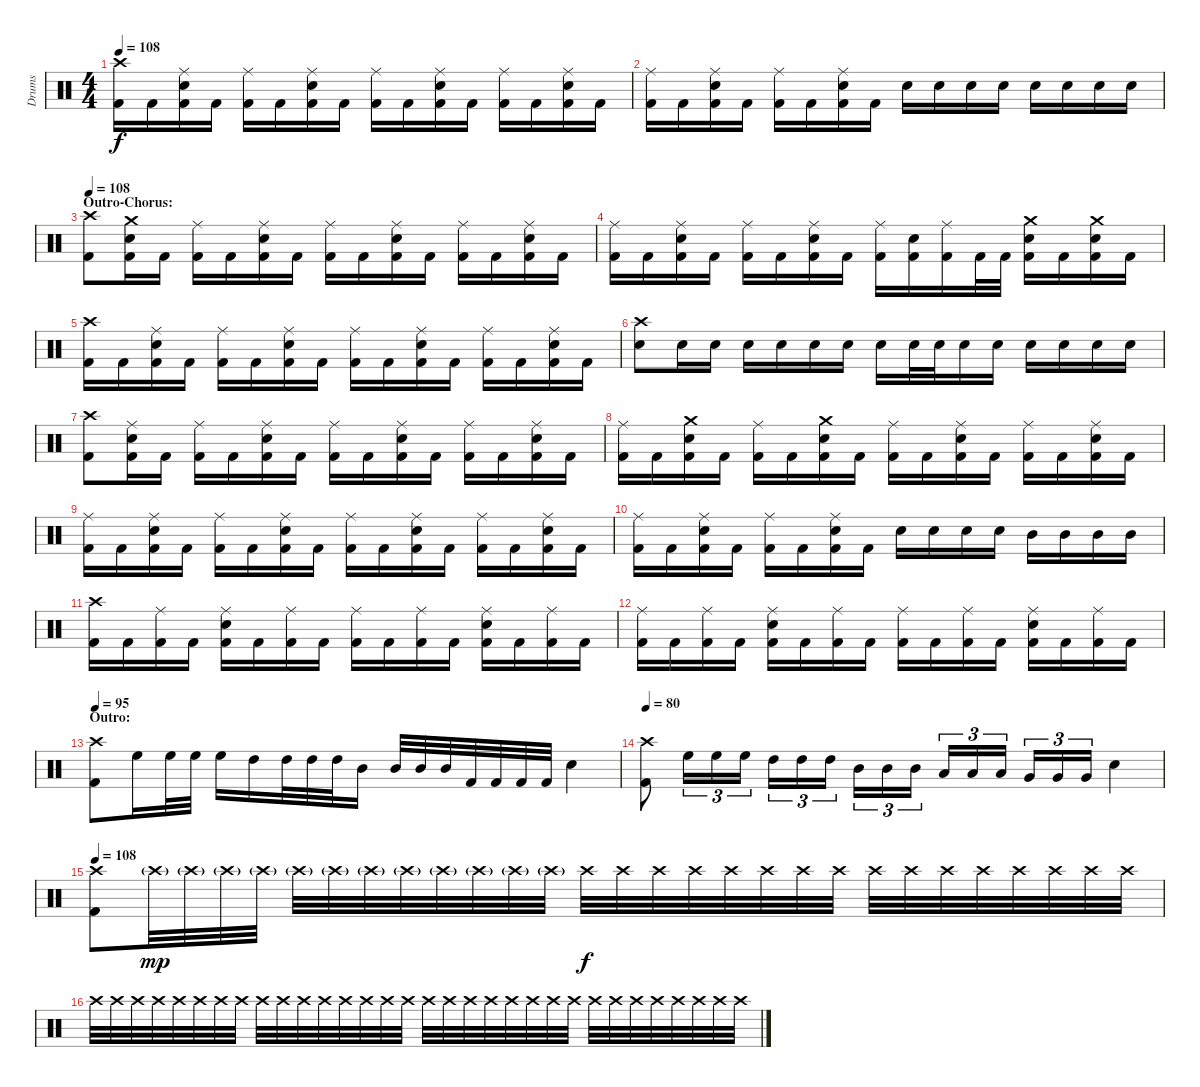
\track ("Drums" "Drums") {instrument percussion}
\staff {score}
\articulation defaults
\ts (4 4)
\tempo 108
\clef neutral
\ks c
("Crash high (hit)" "Kick (hit) 2").16{dy f} "Kick (hit) 2".16 ("Ride (middle)" "Electric Snare (hit)" "Kick (hit) 2").16 "Kick (hit) 2".16 ("Ride (middle)" "Kick (hit) 2").16 "Kick (hit) 2".16 ("Ride (middle)" "Electric Snare (hit)" "Kick (hit) 2").16 "Kick (hit) 2".16 ("Ride (middle)" "Kick (hit) 2").16 "Kick (hit) 2".16 ("Ride (middle)" "Electric Snare (hit)" "Kick (hit) 2").16 "Kick (hit) 2".16 ("Ride (middle)" "Kick (hit) 2").16 "Kick (hit) 2".16 ("Ride (middle)" "Electric Snare (hit)" "Kick (hit) 2").16 "Kick (hit) 2".16 |
("Ride (middle)" "Kick (hit) 2").16 "Kick (hit) 2".16 ("Ride (middle)" "Electric Snare (hit)" "Kick (hit) 2").16 "Kick (hit) 2".16 ("Ride (middle)" "Kick (hit) 2").16 "Kick (hit) 2".16 ("Ride (middle)" "Electric Snare (hit)" "Kick (hit) 2").16 "Kick (hit) 2".16 "Electric Snare (hit)".16 "Electric Snare (hit)".16 "Electric Snare (hit)".16 "Electric Snare (hit)".16 "Electric Snare (hit)".16 "Electric Snare (hit)".16 "Electric Snare (hit)".16 "Electric Snare (hit)".16 |
\section ("" "Outro-Chorus:")
\tempo 108
("Crash high (hit)" "Kick (hit) 2").8 ("Crash medium (hit)" "Electric Snare (hit)" "Kick (hit) 2").16 "Kick (hit) 2".16 ("Ride (middle)" "Kick (hit) 2").16 "Kick (hit) 2".16 ("Ride (middle)" "Electric Snare (hit)" "Kick (hit) 2").16 "Kick (hit) 2".16 ("Ride (middle)" "Kick (hit) 2").16 "Kick (hit) 2".16 ("Ride (middle)" "Electric Snare (hit)" "Kick (hit) 2").16 "Kick (hit) 2".16 ("Ride (middle)" "Kick (hit) 2").16 "Kick (hit) 2".16 ("Ride (middle)" "Electric Snare (hit)" "Kick (hit) 2").16 "Kick (hit) 2".16 |
("Ride (middle)" "Kick (hit) 2").16 "Kick (hit) 2".16 ("Ride (middle)" "Electric Snare (hit)" "Kick (hit) 2").16 "Kick (hit) 2".16 ("Ride (middle)" "Kick (hit) 2").16 "Kick (hit) 2".16 ("Ride (middle)" "Electric Snare (hit)" "Kick (hit) 2").16 "Kick (hit) 2".16 ("Ride (middle)" "Kick (hit) 2").16 ("Electric Snare (hit)" "Kick (hit) 2").16 ("Ride (middle)" "Kick (hit) 2").16 "Kick (hit) 2".32 "Kick (hit) 2".32 ("Crash medium (hit)" "Electric Snare (hit)" "Kick (hit) 2").16 "Kick (hit) 2".16 ("Crash medium (hit)" "Electric Snare (hit)" "Kick (hit) 2").16 "Kick (hit) 2".16 |
("Crash high (hit)" "Kick (hit) 2").16 "Kick (hit) 2".16 ("Ride (middle)" "Electric Snare (hit)" "Kick (hit) 2").16 "Kick (hit) 2".16 ("Ride (middle)" "Kick (hit) 2").16 "Kick (hit) 2".16 ("Ride (middle)" "Electric Snare (hit)" "Kick (hit) 2").16 "Kick (hit) 2".16 ("Ride (middle)" "Kick (hit) 2").16 "Kick (hit) 2".16 ("Ride (middle)" "Electric Snare (hit)" "Kick (hit) 2").16 "Kick (hit) 2".16 ("Ride (middle)" "Kick (hit) 2").16 "Kick (hit) 2".16 ("Ride (middle)" "Electric Snare (hit)" "Kick (hit) 2").16 "Kick (hit) 2".16 |
("Crash high (hit)" "Electric Snare (hit)").8 "Electric Snare (hit)".16 "Electric Snare (hit)".16 "Electric Snare (hit)".16 "Electric Snare (hit)".16 "Electric Snare (hit)".16 "Electric Snare (hit)".16 "Electric Snare (hit)".16 "Electric Snare (hit)".32 "Electric Snare (hit)".32 "Electric Snare (hit)".16 "Electric Snare (hit)".16 "Electric Snare (hit)".16 "Electric Snare (hit)".16 "Electric Snare (hit)".16 "Electric Snare (hit)".16 |
("Crash high (hit)" "Kick (hit) 2").8 ("Ride (middle)" "Electric Snare (hit)" "Kick (hit) 2").16 "Kick (hit) 2".16 ("Ride (middle)" "Kick (hit) 2").16 "Kick (hit) 2".16 ("Ride (middle)" "Electric Snare (hit)" "Kick (hit) 2").16 "Kick (hit) 2".16 ("Ride (middle)" "Kick (hit) 2").16 "Kick (hit) 2".16 ("Ride (middle)" "Electric Snare (hit)" "Kick (hit) 2").16 "Kick (hit) 2".16 ("Ride (middle)" "Kick (hit) 2").16 "Kick (hit) 2".16 ("Ride (middle)" "Electric Snare (hit)" "Kick (hit) 2").16 "Kick (hit) 2".16 |
("Ride (middle)" "Kick (hit) 2").16 "Kick (hit) 2".16 ("Crash medium (hit)" "Electric Snare (hit)" "Kick (hit) 2").16 "Kick (hit) 2".16 ("Ride (middle)" "Kick (hit) 2").16 "Kick (hit) 2".16 ("Crash medium (hit)" "Electric Snare (hit)" "Kick (hit) 2").16 "Kick (hit) 2".16 ("Ride (middle)" "Kick (hit) 2").16 "Kick (hit) 2".16 ("Ride (middle)" "Electric Snare (hit)" "Kick (hit) 2").16 "Kick (hit) 2".16 ("Ride (middle)" "Kick (hit) 2").16 "Kick (hit) 2".16 ("Ride (middle)" "Electric Snare (hit)" "Kick (hit) 2").16 "Kick (hit) 2".16 |
("Ride (middle)" "Kick (hit) 2").16 "Kick (hit) 2".16 ("Ride (middle)" "Electric Snare (hit)" "Kick (hit) 2").16 "Kick (hit) 2".16 ("Ride (middle)" "Kick (hit) 2").16 "Kick (hit) 2".16 ("Ride (middle)" "Electric Snare (hit)" "Kick (hit) 2").16 "Kick (hit) 2".16 ("Ride (middle)" "Kick (hit) 2").16 "Kick (hit) 2".16 ("Ride (middle)" "Electric Snare (hit)" "Kick (hit) 2").16 "Kick (hit) 2".16 ("Ride (middle)" "Kick (hit) 2").16 "Kick (hit) 2".16 ("Ride (middle)" "Electric Snare (hit)" "Kick (hit) 2").16 "Kick (hit) 2".16 |
("Ride (middle)" "Kick (hit) 2").16 "Kick (hit) 2".16 ("Ride (middle)" "Electric Snare (hit)" "Kick (hit) 2").16 "Kick (hit) 2".16 ("Ride (middle)" "Kick (hit) 2").16 "Kick (hit) 2".16 ("Ride (middle)" "Electric Snare (hit)" "Kick (hit) 2").16 "Kick (hit) 2".16 "Electric Snare (hit)".16 "Electric Snare (hit)".16 "Electric Snare (hit)".16 "Electric Snare (hit)".16 "Mid Tom (hit)".16 "Mid Tom (hit)".16 "Mid Tom (hit)".16 "Mid Tom (hit)".16 |
("Crash high (hit)" "Kick (hit) 2").16 "Kick (hit) 2".16 ("Ride (middle)" "Kick (hit) 2").16 "Kick (hit) 2".16 ("Ride (middle)" "Electric Snare (hit)" "Kick (hit) 2").16 "Kick (hit) 2".16 ("Ride (middle)" "Kick (hit) 2").16 "Kick (hit) 2".16 ("Ride (middle)" "Kick (hit) 2").16 "Kick (hit) 2".16 ("Ride (middle)" "Kick (hit) 2").16 "Kick (hit) 2".16 ("Ride (middle)" "Electric Snare (hit)" "Kick (hit) 2").16 "Kick (hit) 2".16 ("Ride (middle)" "Kick (hit) 2").16 "Kick (hit) 2".16 |
("Ride (middle)" "Kick (hit) 2").16 "Kick (hit) 2".16 ("Ride (middle)" "Kick (hit) 2").16 "Kick (hit) 2".16 ("Ride (middle)" "Electric Snare (hit)" "Kick (hit) 2").16 "Kick (hit) 2".16 ("Ride (middle)" "Kick (hit) 2").16 "Kick (hit) 2".16 ("Ride (middle)" "Kick (hit) 2").16 "Kick (hit) 2".16 ("Ride (middle)" "Kick (hit) 2").16 "Kick (hit) 2".16 ("Ride (middle)" "Electric Snare (hit)" "Kick (hit) 2").16 "Kick (hit) 2".16 ("Ride (middle)" "Kick (hit) 2").16 "Kick (hit) 2".16 |
\section ("" "Outro:")
\tempo 95
("Crash high (hit)" "Kick (hit) 2").8 "High Floor Tom (hit)".16 "High Floor Tom (hit)".32 "High Floor Tom (hit)".32 "High Floor Tom (hit)".16 "High Tom (hit)".16 "High Tom (hit)".32 "High Tom (hit)".32 "High Tom (hit)".32 "Mid Tom (hit)".16 "Mid Tom (hit)".32 "Mid Tom (hit)".32 "Mid Tom (hit)".32 "Kick (hit) 2".32 "Kick (hit) 2".32 "Kick (hit) 2".32 "Kick (hit) 2".32 "Electric Snare (hit)".4 |
\tempo 80
("Crash high (hit)" "Kick (hit) 2").8 "High Floor Tom (hit)".16{tu (3 2)} "High Floor Tom (hit)".16{tu (3 2)} "High Floor Tom (hit)".16{tu (3 2)} "High Tom (hit)".16{tu (3 2)} "High Tom (hit)".16{tu (3 2)} "High Tom (hit)".16{tu (3 2)} "Mid Tom (hit)".16{tu (3 2)} "Mid Tom (hit)".16{tu (3 2)} "Mid Tom (hit)".16{tu (3 2)} "Low Tom (hit)".16{tu (3 2)} "Low Tom (hit)".16{tu (3 2)} "Low Tom (hit)".16{tu (3 2)} "Very Low Tom (hit)".16{tu (3 2)} "Very Low Tom (hit)".16{tu (3 2)} "Very Low Tom (hit)".16{tu (3 2)} "Electric Snare (hit)".4 |
\tempo 108
("Crash high (hit)" "Kick (hit) 2").8 "Crash high (hit)"{g}.32{dy mp} "Crash high (hit)"{g}.32 "Crash high (hit)"{g}.32 "Crash high (hit)"{g}.32 "Crash high (hit)"{g}.32 "Crash high (hit)"{g}.32 "Crash high (hit)"{g}.32 "Crash high (hit)"{g}.32 "Crash high (hit)"{g}.32 "Crash high (hit)"{g}.32 "Crash high (hit)"{g}.32 "Crash high (hit)"{g}.32 "Crash high (hit)".32{dy f} "Crash high (hit)".32 "Crash high (hit)".32 "Crash high (hit)".32 "Crash high (hit)".32 "Crash high (hit)".32 "Crash high (hit)".32 "Crash high (hit)".32 "Crash high (hit)".32 "Crash high (hit)".32 "Crash high (hit)".32 "Crash high (hit)".32 "Crash high (hit)".32 "Crash high (hit)".32 "Crash high (hit)".32 "Crash high (hit)".32 |
"Crash high (hit)".32 "Crash high (hit)".32 "Crash high (hit)".32 "Crash high (hit)".32 "Crash high (hit)".32 "Crash high (hit)".32 "Crash high (hit)".32 "Crash high (hit)".32 "Crash high (hit)".32 "Crash high (hit)".32 "Crash high (hit)".32 "Crash high (hit)".32 "Crash high (hit)".32 "Crash high (hit)".32 "Crash high (hit)".32 "Crash high (hit)".32 "Crash high (hit)".32 "Crash high (hit)".32 "Crash high (hit)".32 "Crash high (hit)".32 "Crash high (hit)".32 "Crash high (hit)".32 "Crash high (hit)".32 "Crash high (hit)".32 "Crash high (hit)".32 "Crash high (hit)".32 "Crash high (hit)".32 "Crash high (hit)".32 "Crash high (hit)".32 "Crash high (hit)".32 "Crash high (hit)".32 "Crash high (hit)".32
